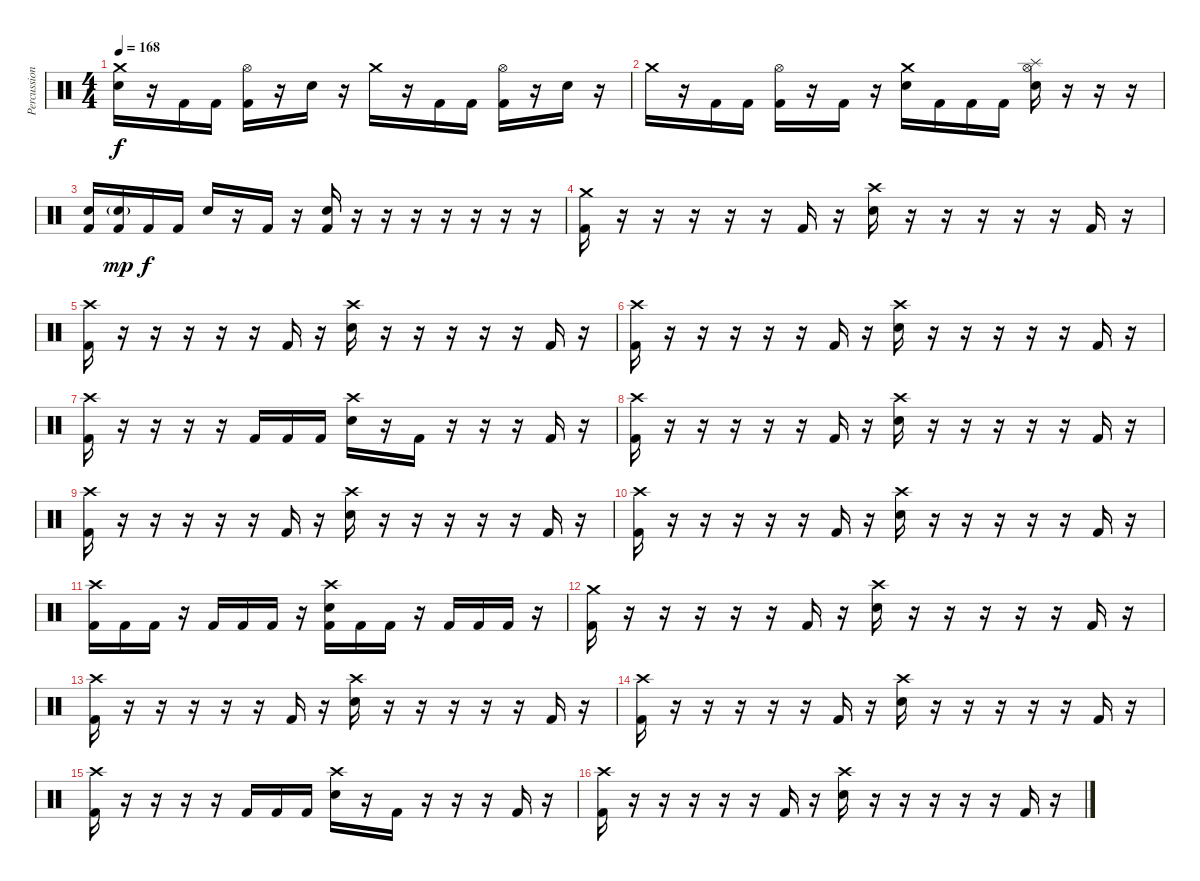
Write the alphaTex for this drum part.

\track ("Percussion" "Percussion") {instrument percussion}
\staff {score}
\articulation defaults
\ts (4 4)
\tempo 168
\clef neutral
\ks c
("Crash medium (hit)" "Electric Snare (hit)").16{dy f} r.16 "Kick (hit) 2".16 "Kick (hit) 2".16 ("Hi-Hat (open)" "Kick (hit) 2").16 r.16 "Electric Snare (hit)".16 r.16 "Crash medium (hit)".16 r.16 "Kick (hit) 2".16 "Kick (hit) 2".16 ("Hi-Hat (open)" "Kick (hit) 2").16 r.16 "Electric Snare (hit)".16 r.16 |
"Crash medium (hit)".16 r.16 "Kick (hit) 2".16 "Kick (hit) 2".16 ("Hi-Hat (open)" "Kick (hit) 2").16 r.16 "Kick (hit) 2".16 r.16 ("Crash medium (hit)" "Electric Snare (hit)").16 "Kick (hit) 2".16 "Kick (hit) 2".16 "Kick (hit) 2".16 ("Hi-Hat (open)" "Splash (hit)" "Electric Snare (hit)").16 r.16 r.16 r.16 |
("Electric Snare (hit)" "Kick (hit) 2").16 ("Electric Snare (hit)"{g} "Kick (hit) 2").16{dy mp} "Kick (hit) 2".16{dy f} "Kick (hit) 2".16 "Electric Snare (hit)".16 r.16 "Kick (hit) 2".16 r.16 ("Electric Snare (hit)" "Kick (hit) 2").16 r.16 r.16 r.16 r.16 r.16 r.16 r.16 |
("Crash medium (hit)" "Kick (hit) 2").16 r.16 r.16 r.16 r.16 r.16 "Kick (hit) 2".16 r.16 ("Crash high (hit)" "Electric Snare (hit)").16 r.16 r.16 r.16 r.16 r.16 "Kick (hit) 2".16 r.16 |
("Crash high (hit)" "Kick (hit) 2").16 r.16 r.16 r.16 r.16 r.16 "Kick (hit) 2".16 r.16 ("Crash high (hit)" "Electric Snare (hit)").16 r.16 r.16 r.16 r.16 r.16 "Kick (hit) 2".16 r.16 |
("Crash high (hit)" "Kick (hit) 2").16 r.16 r.16 r.16 r.16 r.16 "Kick (hit) 2".16 r.16 ("Crash high (hit)" "Electric Snare (hit)").16 r.16 r.16 r.16 r.16 r.16 "Kick (hit) 2".16 r.16 |
("Crash high (hit)" "Kick (hit) 2").16 r.16 r.16 r.16 r.16 "Kick (hit) 2".16 "Kick (hit) 2".16 "Kick (hit) 2".16 ("Crash high (hit)" "Electric Snare (hit)").16 r.16 "Kick (hit) 2".16 r.16 r.16 r.16 "Kick (hit) 2".16 r.16 |
("Crash high (hit)" "Kick (hit) 2").16 r.16 r.16 r.16 r.16 r.16 "Kick (hit) 2".16 r.16 ("Crash high (hit)" "Electric Snare (hit)").16 r.16 r.16 r.16 r.16 r.16 "Kick (hit) 2".16 r.16 |
("Crash high (hit)" "Kick (hit) 2").16 r.16 r.16 r.16 r.16 r.16 "Kick (hit) 2".16 r.16 ("Crash high (hit)" "Electric Snare (hit)").16 r.16 r.16 r.16 r.16 r.16 "Kick (hit) 2".16 r.16 |
("Crash high (hit)" "Kick (hit) 2").16 r.16 r.16 r.16 r.16 r.16 "Kick (hit) 2".16 r.16 ("Crash high (hit)" "Electric Snare (hit)").16 r.16 r.16 r.16 r.16 r.16 "Kick (hit) 2".16 r.16 |
("Crash high (hit)" "Kick (hit) 2").16 "Kick (hit) 2".16 "Kick (hit) 2".16 r.16 "Kick (hit) 2".16 "Kick (hit) 2".16 "Kick (hit) 2".16 r.16 ("Crash high (hit)" "Electric Snare (hit)" "Kick (hit) 2").16 "Kick (hit) 2".16 "Kick (hit) 2".16 r.16 "Kick (hit) 2".16 "Kick (hit) 2".16 "Kick (hit) 2".16 r.16 |
("Crash medium (hit)" "Kick (hit) 2").16 r.16 r.16 r.16 r.16 r.16 "Kick (hit) 2".16 r.16 ("Crash high (hit)" "Electric Snare (hit)").16 r.16 r.16 r.16 r.16 r.16 "Kick (hit) 2".16 r.16 |
("Crash high (hit)" "Kick (hit) 2").16 r.16 r.16 r.16 r.16 r.16 "Kick (hit) 2".16 r.16 ("Crash high (hit)" "Electric Snare (hit)").16 r.16 r.16 r.16 r.16 r.16 "Kick (hit) 2".16 r.16 |
("Crash high (hit)" "Kick (hit) 2").16 r.16 r.16 r.16 r.16 r.16 "Kick (hit) 2".16 r.16 ("Crash high (hit)" "Electric Snare (hit)").16 r.16 r.16 r.16 r.16 r.16 "Kick (hit) 2".16 r.16 |
("Crash high (hit)" "Kick (hit) 2").16 r.16 r.16 r.16 r.16 "Kick (hit) 2".16 "Kick (hit) 2".16 "Kick (hit) 2".16 ("Crash high (hit)" "Electric Snare (hit)").16 r.16 "Kick (hit) 2".16 r.16 r.16 r.16 "Kick (hit) 2".16 r.16 |
("Crash high (hit)" "Kick (hit) 2").16 r.16 r.16 r.16 r.16 r.16 "Kick (hit) 2".16 r.16 ("Crash high (hit)" "Electric Snare (hit)").16 r.16 r.16 r.16 r.16 r.16 "Kick (hit) 2".16 r.16
